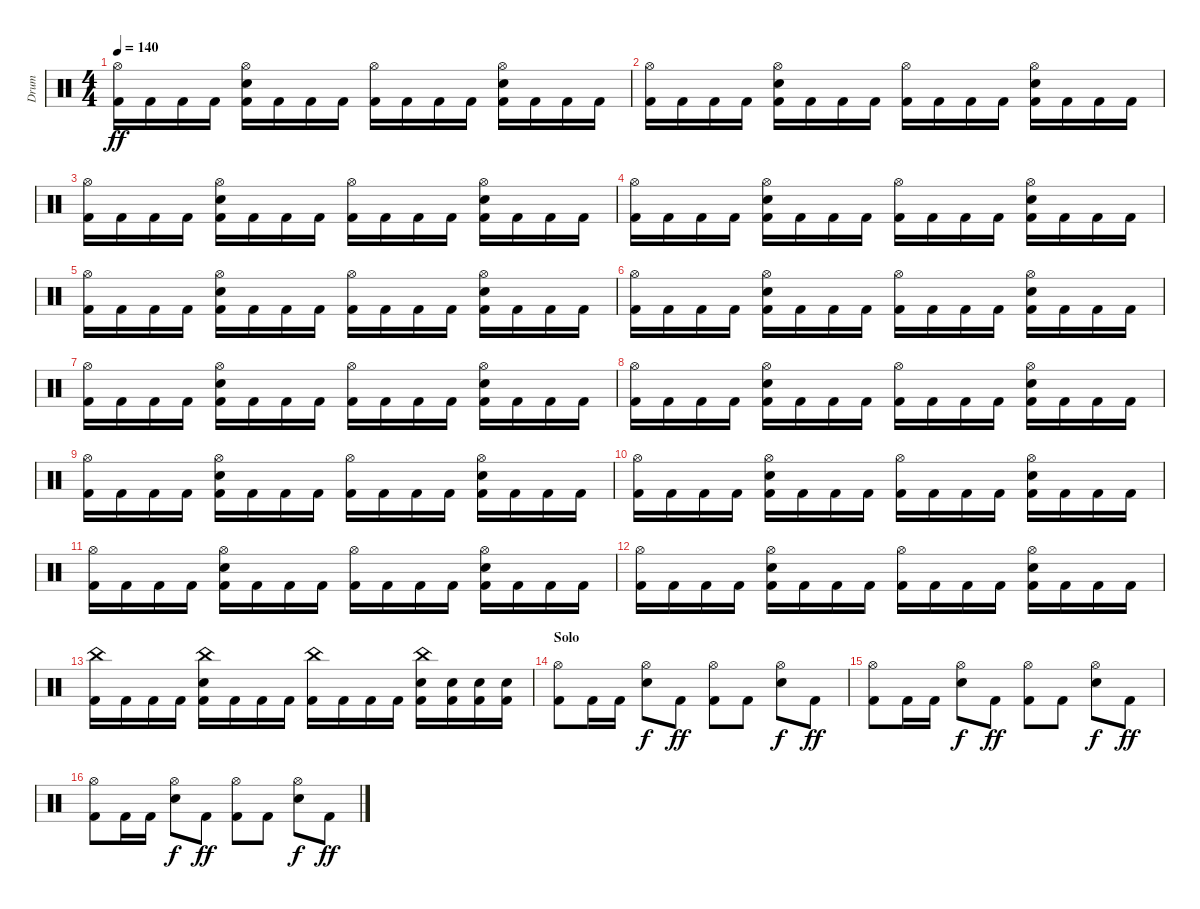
\track ("Drum" "Drum") {instrument percussion}
\staff {score}
\articulation defaults
\ts (4 4)
\tempo 140
\clef neutral
\ks c
("Hi-Hat (open)" "Kick (hit) 2").16{dy ff} "Kick (hit) 2".16 "Kick (hit) 2".16 "Kick (hit) 2".16 ("Hi-Hat (open)" "Snare (hit) 2" "Kick (hit) 2").16 "Kick (hit) 2".16 "Kick (hit) 2".16 "Kick (hit) 2".16 ("Hi-Hat (open)" "Kick (hit) 2").16 "Kick (hit) 2".16 "Kick (hit) 2".16 "Kick (hit) 2".16 ("Hi-Hat (open)" "Snare (hit) 2" "Kick (hit) 2").16 "Kick (hit) 2".16 "Kick (hit) 2".16 "Kick (hit) 2".16 |
("Hi-Hat (open)" "Kick (hit) 2").16 "Kick (hit) 2".16 "Kick (hit) 2".16 "Kick (hit) 2".16 ("Hi-Hat (open)" "Snare (hit) 2" "Kick (hit) 2").16 "Kick (hit) 2".16 "Kick (hit) 2".16 "Kick (hit) 2".16 ("Hi-Hat (open)" "Kick (hit) 2").16 "Kick (hit) 2".16 "Kick (hit) 2".16 "Kick (hit) 2".16 ("Hi-Hat (open)" "Snare (hit) 2" "Kick (hit) 2").16 "Kick (hit) 2".16 "Kick (hit) 2".16 "Kick (hit) 2".16 |
("Hi-Hat (open)" "Kick (hit) 2").16 "Kick (hit) 2".16 "Kick (hit) 2".16 "Kick (hit) 2".16 ("Hi-Hat (open)" "Snare (hit) 2" "Kick (hit) 2").16 "Kick (hit) 2".16 "Kick (hit) 2".16 "Kick (hit) 2".16 ("Hi-Hat (open)" "Kick (hit) 2").16 "Kick (hit) 2".16 "Kick (hit) 2".16 "Kick (hit) 2".16 ("Hi-Hat (open)" "Snare (hit) 2" "Kick (hit) 2").16 "Kick (hit) 2".16 "Kick (hit) 2".16 "Kick (hit) 2".16 |
("Hi-Hat (open)" "Kick (hit) 2").16 "Kick (hit) 2".16 "Kick (hit) 2".16 "Kick (hit) 2".16 ("Hi-Hat (open)" "Snare (hit) 2" "Kick (hit) 2").16 "Kick (hit) 2".16 "Kick (hit) 2".16 "Kick (hit) 2".16 ("Hi-Hat (open)" "Kick (hit) 2").16 "Kick (hit) 2".16 "Kick (hit) 2".16 "Kick (hit) 2".16 ("Hi-Hat (open)" "Snare (hit) 2" "Kick (hit) 2").16 "Kick (hit) 2".16 "Kick (hit) 2".16 "Kick (hit) 2".16 |
("Hi-Hat (open)" "Kick (hit) 2").16 "Kick (hit) 2".16 "Kick (hit) 2".16 "Kick (hit) 2".16 ("Hi-Hat (open)" "Snare (hit) 2" "Kick (hit) 2").16 "Kick (hit) 2".16 "Kick (hit) 2".16 "Kick (hit) 2".16 ("Hi-Hat (open)" "Kick (hit) 2").16 "Kick (hit) 2".16 "Kick (hit) 2".16 "Kick (hit) 2".16 ("Hi-Hat (open)" "Snare (hit) 2" "Kick (hit) 2").16 "Kick (hit) 2".16 "Kick (hit) 2".16 "Kick (hit) 2".16 |
("Hi-Hat (open)" "Kick (hit) 2").16 "Kick (hit) 2".16 "Kick (hit) 2".16 "Kick (hit) 2".16 ("Hi-Hat (open)" "Snare (hit) 2" "Kick (hit) 2").16 "Kick (hit) 2".16 "Kick (hit) 2".16 "Kick (hit) 2".16 ("Hi-Hat (open)" "Kick (hit) 2").16 "Kick (hit) 2".16 "Kick (hit) 2".16 "Kick (hit) 2".16 ("Hi-Hat (open)" "Snare (hit) 2" "Kick (hit) 2").16 "Kick (hit) 2".16 "Kick (hit) 2".16 "Kick (hit) 2".16 |
("Hi-Hat (open)" "Kick (hit) 2").16 "Kick (hit) 2".16 "Kick (hit) 2".16 "Kick (hit) 2".16 ("Hi-Hat (open)" "Snare (hit) 2" "Kick (hit) 2").16 "Kick (hit) 2".16 "Kick (hit) 2".16 "Kick (hit) 2".16 ("Hi-Hat (open)" "Kick (hit) 2").16 "Kick (hit) 2".16 "Kick (hit) 2".16 "Kick (hit) 2".16 ("Hi-Hat (open)" "Snare (hit) 2" "Kick (hit) 2").16 "Kick (hit) 2".16 "Kick (hit) 2".16 "Kick (hit) 2".16 |
("Hi-Hat (open)" "Kick (hit) 2").16 "Kick (hit) 2".16 "Kick (hit) 2".16 "Kick (hit) 2".16 ("Hi-Hat (open)" "Snare (hit) 2" "Kick (hit) 2").16 "Kick (hit) 2".16 "Kick (hit) 2".16 "Kick (hit) 2".16 ("Hi-Hat (open)" "Kick (hit) 2").16 "Kick (hit) 2".16 "Kick (hit) 2".16 "Kick (hit) 2".16 ("Hi-Hat (open)" "Snare (hit) 2" "Kick (hit) 2").16 "Kick (hit) 2".16 "Kick (hit) 2".16 "Kick (hit) 2".16 |
("Hi-Hat (open)" "Kick (hit) 2").16 "Kick (hit) 2".16 "Kick (hit) 2".16 "Kick (hit) 2".16 ("Hi-Hat (open)" "Snare (hit) 2" "Kick (hit) 2").16 "Kick (hit) 2".16 "Kick (hit) 2".16 "Kick (hit) 2".16 ("Hi-Hat (open)" "Kick (hit) 2").16 "Kick (hit) 2".16 "Kick (hit) 2".16 "Kick (hit) 2".16 ("Hi-Hat (open)" "Snare (hit) 2" "Kick (hit) 2").16 "Kick (hit) 2".16 "Kick (hit) 2".16 "Kick (hit) 2".16 |
("Hi-Hat (open)" "Kick (hit) 2").16 "Kick (hit) 2".16 "Kick (hit) 2".16 "Kick (hit) 2".16 ("Hi-Hat (open)" "Snare (hit) 2" "Kick (hit) 2").16 "Kick (hit) 2".16 "Kick (hit) 2".16 "Kick (hit) 2".16 ("Hi-Hat (open)" "Kick (hit) 2").16 "Kick (hit) 2".16 "Kick (hit) 2".16 "Kick (hit) 2".16 ("Hi-Hat (open)" "Snare (hit) 2" "Kick (hit) 2").16 "Kick (hit) 2".16 "Kick (hit) 2".16 "Kick (hit) 2".16 |
("Hi-Hat (open)" "Kick (hit) 2").16 "Kick (hit) 2".16 "Kick (hit) 2".16 "Kick (hit) 2".16 ("Hi-Hat (open)" "Snare (hit) 2" "Kick (hit) 2").16 "Kick (hit) 2".16 "Kick (hit) 2".16 "Kick (hit) 2".16 ("Hi-Hat (open)" "Kick (hit) 2").16 "Kick (hit) 2".16 "Kick (hit) 2".16 "Kick (hit) 2".16 ("Hi-Hat (open)" "Snare (hit) 2" "Kick (hit) 2").16 "Kick (hit) 2".16 "Kick (hit) 2".16 "Kick (hit) 2".16 |
("Hi-Hat (open)" "Kick (hit) 2").16 "Kick (hit) 2".16 "Kick (hit) 2".16 "Kick (hit) 2".16 ("Hi-Hat (open)" "Snare (hit) 2" "Kick (hit) 2").16 "Kick (hit) 2".16 "Kick (hit) 2".16 "Kick (hit) 2".16 ("Hi-Hat (open)" "Kick (hit) 2").16 "Kick (hit) 2".16 "Kick (hit) 2".16 "Kick (hit) 2".16 ("Hi-Hat (open)" "Snare (hit) 2" "Kick (hit) 2").16 "Kick (hit) 2".16 "Kick (hit) 2".16 "Kick (hit) 2".16 |
("China (hit)" "Kick (hit) 2").16 "Kick (hit) 2".16 "Kick (hit) 2".16 "Kick (hit) 2".16 ("China (hit)" "Snare (hit) 2" "Kick (hit) 2").16 "Kick (hit) 2".16 "Kick (hit) 2".16 "Kick (hit) 2".16 ("China (hit)" "Kick (hit) 2").16 "Kick (hit) 2".16 "Kick (hit) 2".16 "Kick (hit) 2".16 ("China (hit)" "Snare (hit) 2" "Kick (hit) 2").16 ("Snare (hit) 2" "Kick (hit) 2").16 ("Snare (hit) 2" "Kick (hit) 2").16 ("Snare (hit) 2" "Kick (hit) 2").16 |
\section ("" "Solo")
("Hi-Hat (open)" "Kick (hit) 2").8 "Kick (hit) 2".16 "Kick (hit) 2".16 ("Hi-Hat (open)" "Snare (hit) 2").8{dy f} "Kick (hit) 2".8{dy ff} ("Hi-Hat (open)" "Kick (hit) 2").8 "Kick (hit) 2".8 ("Hi-Hat (open)" "Snare (hit) 2").8{dy f} "Kick (hit) 2".8{dy ff} |
("Hi-Hat (open)" "Kick (hit) 2").8 "Kick (hit) 2".16 "Kick (hit) 2".16 ("Hi-Hat (open)" "Snare (hit) 2").8{dy f} "Kick (hit) 2".8{dy ff} ("Hi-Hat (open)" "Kick (hit) 2").8 "Kick (hit) 2".8 ("Hi-Hat (open)" "Snare (hit) 2").8{dy f} "Kick (hit) 2".8{dy ff} |
("Hi-Hat (open)" "Kick (hit) 2").8 "Kick (hit) 2".16 "Kick (hit) 2".16 ("Hi-Hat (open)" "Snare (hit) 2").8{dy f} "Kick (hit) 2".8{dy ff} ("Hi-Hat (open)" "Kick (hit) 2").8 "Kick (hit) 2".8 ("Hi-Hat (open)" "Snare (hit) 2").8{dy f} "Kick (hit) 2".8{dy ff}
